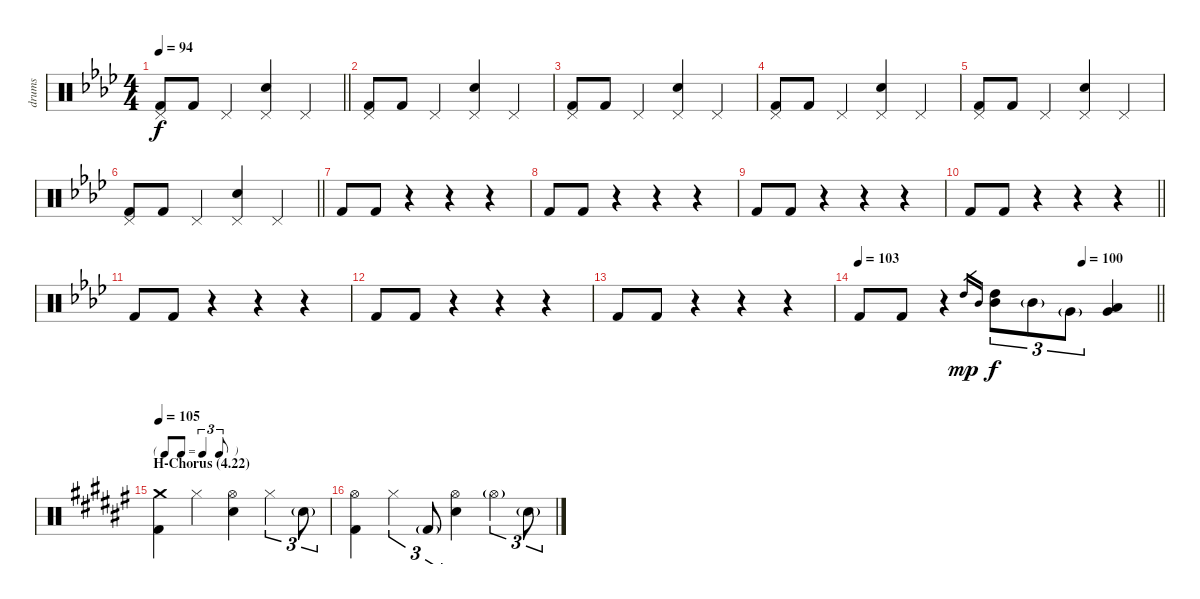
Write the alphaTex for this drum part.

\track ("drums" "drums") {instrument percussion}
\staff {score}
\articulation defaults
\ts (4 4)
\tempo 94
\clef neutral
\barLineRight lightlight
\ks ab
("Pedal Hi-Hat (hit)" "Kick (hit) 2").8{dy f} "Kick (hit) 2".8 "Pedal Hi-Hat (hit)".4 ("Pedal Hi-Hat (hit)" "Electric Snare (hit)").4 "Pedal Hi-Hat (hit)".4 |
("Pedal Hi-Hat (hit)" "Kick (hit) 2").8 "Kick (hit) 2".8 "Pedal Hi-Hat (hit)".4 ("Pedal Hi-Hat (hit)" "Electric Snare (hit)").4 "Pedal Hi-Hat (hit)".4 |
("Pedal Hi-Hat (hit)" "Kick (hit) 2").8 "Kick (hit) 2".8 "Pedal Hi-Hat (hit)".4 ("Pedal Hi-Hat (hit)" "Electric Snare (hit)").4 "Pedal Hi-Hat (hit)".4 |
("Pedal Hi-Hat (hit)" "Kick (hit) 2").8 "Kick (hit) 2".8 "Pedal Hi-Hat (hit)".4 ("Pedal Hi-Hat (hit)" "Electric Snare (hit)").4 "Pedal Hi-Hat (hit)".4 |
("Pedal Hi-Hat (hit)" "Kick (hit) 2").8 "Kick (hit) 2".8 "Pedal Hi-Hat (hit)".4 ("Pedal Hi-Hat (hit)" "Electric Snare (hit)").4 "Pedal Hi-Hat (hit)".4 |
\barLineRight lightlight
("Pedal Hi-Hat (hit)" "Kick (hit) 2").8 "Kick (hit) 2".8 "Pedal Hi-Hat (hit)".4 ("Pedal Hi-Hat (hit)" "Electric Snare (hit)").4 "Pedal Hi-Hat (hit)".4 |
"Kick (hit) 2".8 "Kick (hit) 2".8 r.4 r.4 r.4 |
"Kick (hit) 2".8 "Kick (hit) 2".8 r.4 r.4 r.4 |
"Kick (hit) 2".8 "Kick (hit) 2".8 r.4 r.4 r.4 |
\barLineRight lightlight "Kick (hit) 2".8 "Kick (hit) 2".8
r.4 r.4 r.4 |
"Kick (hit) 2".8 "Kick (hit) 2".8 r.4 r.4 r.4 |
"Kick (hit) 2".8 "Kick (hit) 2".8 r.4 r.4 r.4 |
"Kick (hit) 2".8 "Kick (hit) 2".8 r.4 r.4 r.4 |
\tempo 103
\tempo (100 0.75)
\barLineRight lightlight "Kick (hit) 2".8 "Kick (hit) 2".8
r.4 "High Tom (hit)".16{gr dy mp} "Mid Tom (hit)".16{gr} ("High Tom (hit)" "Mid Tom (hit)").8{tu (3 2) dy f} "Mid Tom (hit)"{g}.8{tu (3 2)} "Very Low Tom (hit)"{g}.8{tu (3 2)} ("Low Tom (hit)" "Very Low Tom (hit)").4 |
\tf triplet8th
\section ("" "H-Chorus (4.22)")
\tempo 105
\ks f#
("Crash medium (hit)" "Kick (hit) 2").4 "Hi-Hat (closed)".4 ("Hi-Hat (open)" "Electric Snare (hit)").4 "Hi-Hat (closed)".4{tu (3 2)} "Electric Snare (hit)"{g}.8{tu (3 2)} |
\ks d#minor
("Hi-Hat (open)" "Kick (hit) 2").4 "Hi-Hat (closed)".4{tu (3 2)} "Kick (hit) 2"{g}.8{tu (3 2)} ("Hi-Hat (open)" "Electric Snare (hit)").4 "Hi-Hat (open)"{g}.4{tu (3 2)} "Electric Snare (hit)"{g}.8{tu (3 2)}
